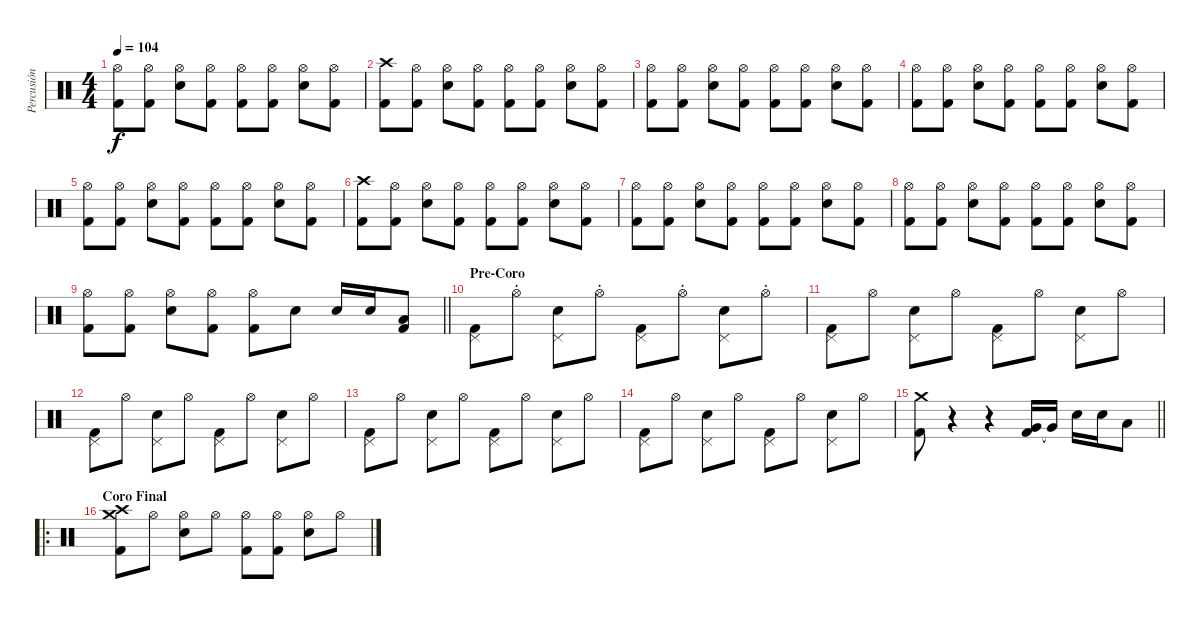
\track ("Percusión" "Percusión") {instrument percussion}
\staff {score}
\articulation defaults
\ts (4 4)
\tempo 104
\clef neutral
\ks c
("Hi-Hat (open)" "Kick (hit) 2").8{dy f} ("Hi-Hat (open)" "Kick (hit) 2").8 ("Hi-Hat (open)" "Snare (hit) 2").8 ("Hi-Hat (open)" "Kick (hit) 2").8 ("Hi-Hat (open)" "Kick (hit) 2").8 ("Hi-Hat (open)" "Kick (hit) 2").8 ("Hi-Hat (open)" "Snare (hit) 2").8 ("Hi-Hat (open)" "Kick (hit) 2").8 |
("Crash high (hit)" "Kick (hit) 2").8 ("Hi-Hat (open)" "Kick (hit) 2").8 ("Hi-Hat (open)" "Snare (hit) 2").8 ("Hi-Hat (open)" "Kick (hit) 2").8 ("Hi-Hat (open)" "Kick (hit) 2").8 ("Hi-Hat (open)" "Kick (hit) 2").8 ("Hi-Hat (open)" "Snare (hit) 2").8 ("Hi-Hat (open)" "Kick (hit) 2").8 |
("Hi-Hat (open)" "Kick (hit) 2").8 ("Hi-Hat (open)" "Kick (hit) 2").8 ("Hi-Hat (open)" "Snare (hit) 2").8 ("Hi-Hat (open)" "Kick (hit) 2").8 ("Hi-Hat (open)" "Kick (hit) 2").8 ("Hi-Hat (open)" "Kick (hit) 2").8 ("Hi-Hat (open)" "Snare (hit) 2").8 ("Hi-Hat (open)" "Kick (hit) 2").8 |
("Hi-Hat (open)" "Kick (hit) 2").8 ("Hi-Hat (open)" "Kick (hit) 2").8 ("Hi-Hat (open)" "Snare (hit) 2").8 ("Hi-Hat (open)" "Kick (hit) 2").8 ("Hi-Hat (open)" "Kick (hit) 2").8 ("Hi-Hat (open)" "Kick (hit) 2").8 ("Hi-Hat (open)" "Snare (hit) 2").8 ("Hi-Hat (open)" "Kick (hit) 2").8 |
("Hi-Hat (open)" "Kick (hit) 2").8 ("Hi-Hat (open)" "Kick (hit) 2").8 ("Hi-Hat (open)" "Snare (hit) 2").8 ("Hi-Hat (open)" "Kick (hit) 2").8 ("Hi-Hat (open)" "Kick (hit) 2").8 ("Hi-Hat (open)" "Kick (hit) 2").8 ("Hi-Hat (open)" "Snare (hit) 2").8 ("Hi-Hat (open)" "Kick (hit) 2").8 |
("Crash high (hit)" "Kick (hit) 2").8 ("Hi-Hat (open)" "Kick (hit) 2").8 ("Hi-Hat (open)" "Snare (hit) 2").8 ("Hi-Hat (open)" "Kick (hit) 2").8 ("Hi-Hat (open)" "Kick (hit) 2").8 ("Hi-Hat (open)" "Kick (hit) 2").8 ("Hi-Hat (open)" "Snare (hit) 2").8 ("Hi-Hat (open)" "Kick (hit) 2").8 |
("Hi-Hat (open)" "Kick (hit) 2").8 ("Hi-Hat (open)" "Kick (hit) 2").8 ("Hi-Hat (open)" "Snare (hit) 2").8 ("Hi-Hat (open)" "Kick (hit) 2").8 ("Hi-Hat (open)" "Kick (hit) 2").8 ("Hi-Hat (open)" "Kick (hit) 2").8 ("Hi-Hat (open)" "Snare (hit) 2").8 ("Hi-Hat (open)" "Kick (hit) 2").8 |
("Hi-Hat (open)" "Kick (hit) 2").8 ("Hi-Hat (open)" "Kick (hit) 2").8 ("Hi-Hat (open)" "Snare (hit) 2").8 ("Hi-Hat (open)" "Kick (hit) 2").8 ("Hi-Hat (open)" "Kick (hit) 2").8 ("Hi-Hat (open)" "Kick (hit) 2").8 ("Hi-Hat (open)" "Snare (hit) 2").8 ("Hi-Hat (open)" "Kick (hit) 2").8 |
\barLineRight lightlight
("Hi-Hat (open)" "Kick (hit) 2").8 ("Hi-Hat (open)" "Kick (hit) 2").8 ("Hi-Hat (open)" "Snare (hit) 2").8 ("Hi-Hat (open)" "Kick (hit) 2").8 ("Hi-Hat (open)" "Kick (hit) 2").8 "Snare (hit) 2".8 "Snare (hit) 2".16 "Snare (hit) 2".16 ("Low Tom (hit)" "Kick (hit) 2").8 |
\section ("" "Pre-Coro")
("Pedal Hi-Hat (hit)" "Kick (hit) 2").8 "Hi-Hat (open)"{st}.8 ("Pedal Hi-Hat (hit)" "Snare (hit) 2").8 "Hi-Hat (open)"{st}.8 ("Pedal Hi-Hat (hit)" "Kick (hit) 2").8 "Hi-Hat (open)"{st}.8 ("Pedal Hi-Hat (hit)" "Snare (hit) 2").8 "Hi-Hat (open)"{st}.8 |
("Pedal Hi-Hat (hit)" "Kick (hit) 2").8 "Hi-Hat (open)".8 ("Pedal Hi-Hat (hit)" "Snare (hit) 2").8 "Hi-Hat (open)".8 ("Pedal Hi-Hat (hit)" "Kick (hit) 2").8 "Hi-Hat (open)".8 ("Pedal Hi-Hat (hit)" "Snare (hit) 2").8 "Hi-Hat (open)".8 |
("Pedal Hi-Hat (hit)" "Kick (hit) 2").8 "Hi-Hat (open)".8 ("Pedal Hi-Hat (hit)" "Snare (hit) 2").8 "Hi-Hat (open)".8 ("Pedal Hi-Hat (hit)" "Kick (hit) 2").8 "Hi-Hat (open)".8 ("Pedal Hi-Hat (hit)" "Snare (hit) 2").8 "Hi-Hat (open)".8 |
("Pedal Hi-Hat (hit)" "Kick (hit) 2").8 "Hi-Hat (open)".8 ("Pedal Hi-Hat (hit)" "Snare (hit) 2").8 "Hi-Hat (open)".8 ("Pedal Hi-Hat (hit)" "Kick (hit) 2").8 "Hi-Hat (open)".8 ("Pedal Hi-Hat (hit)" "Snare (hit) 2").8 "Hi-Hat (open)".8 |
("Pedal Hi-Hat (hit)" "Kick (hit) 2").8 "Hi-Hat (open)".8 ("Pedal Hi-Hat (hit)" "Snare (hit) 2").8 "Hi-Hat (open)".8 ("Pedal Hi-Hat (hit)" "Kick (hit) 2").8 "Hi-Hat (open)".8 ("Pedal Hi-Hat (hit)" "Snare (hit) 2").8 "Hi-Hat (open)".8 |
\barLineRight lightlight
("Crash medium (hit)" "Kick (hit) 2").8 r.4 r.4 ("Very Low Tom (hit)" "Kick (hit) 2").16 "Very Low Tom (hit)"{t}.16 "Snare (hit) 2".16 "Snare (hit) 2".16 "Low Tom (hit)".8 |
\ro
\section ("" "Coro Final")
("Crash medium (hit)" "Crash high (hit)" "Kick (hit) 2").8 "Hi-Hat (open)".8 ("Hi-Hat (open)" "Snare (hit) 2").8 "Hi-Hat (open)".8 ("Hi-Hat (open)" "Kick (hit) 2").8 ("Hi-Hat (open)" "Kick (hit) 2").8 ("Hi-Hat (open)" "Snare (hit) 2").8 "Hi-Hat (open)".8
